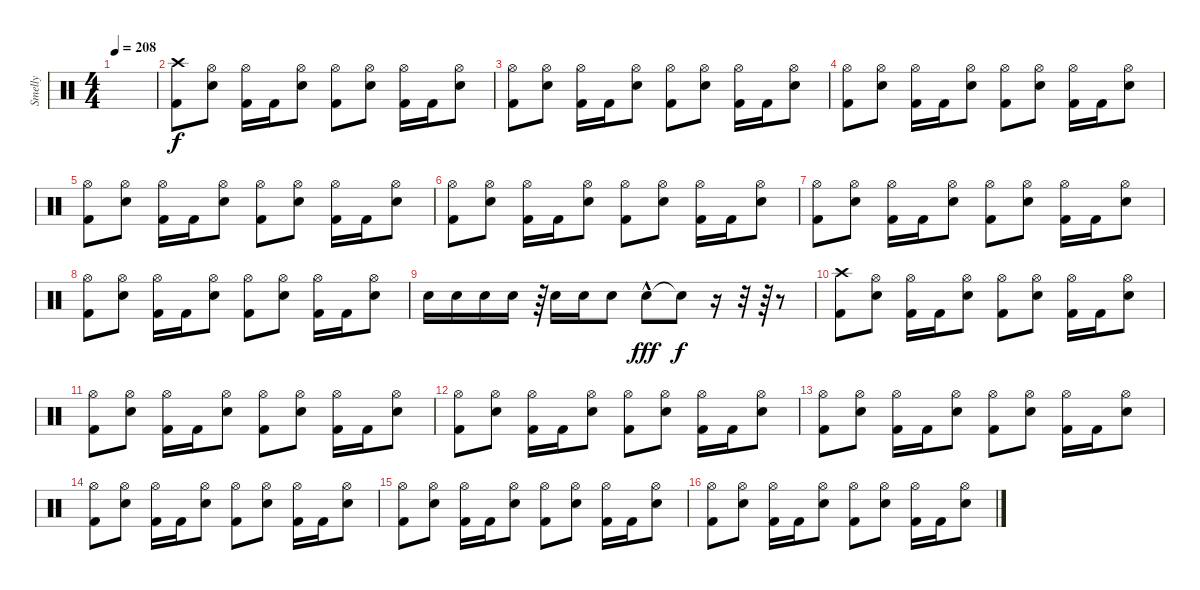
\track ("Smelly" "Smelly") {instrument percussion}
\staff {score}
\articulation defaults
\ts (4 4)
\tempo 208
\clef neutral
\ks c
|
("Crash high (hit)" "Kick (hit) 2").8 ("Hi-Hat (open)" "Electric Snare (hit)").8 ("Kick (hit) 2" "Hi-Hat (open)").16 "Kick (hit) 2".16 ("Hi-Hat (open)" "Electric Snare (hit)").8 ("Kick (hit) 2" "Hi-Hat (open)").8 ("Hi-Hat (open)" "Electric Snare (hit)").8 ("Kick (hit) 2" "Hi-Hat (open)").16 "Kick (hit) 2".16 ("Hi-Hat (open)" "Electric Snare (hit)").8 |
("Kick (hit) 2" "Hi-Hat (open)").8 ("Hi-Hat (open)" "Electric Snare (hit)").8 ("Kick (hit) 2" "Hi-Hat (open)").16 "Kick (hit) 2".16 ("Hi-Hat (open)" "Electric Snare (hit)").8 ("Kick (hit) 2" "Hi-Hat (open)").8 ("Hi-Hat (open)" "Electric Snare (hit)").8 ("Kick (hit) 2" "Hi-Hat (open)").16 "Kick (hit) 2".16 ("Hi-Hat (open)" "Electric Snare (hit)").8 |
("Kick (hit) 2" "Hi-Hat (open)").8 ("Hi-Hat (open)" "Electric Snare (hit)").8 ("Kick (hit) 2" "Hi-Hat (open)").16 "Kick (hit) 2".16 ("Hi-Hat (open)" "Electric Snare (hit)").8 ("Kick (hit) 2" "Hi-Hat (open)").8 ("Hi-Hat (open)" "Electric Snare (hit)").8 ("Kick (hit) 2" "Hi-Hat (open)").16 "Kick (hit) 2".16 ("Hi-Hat (open)" "Electric Snare (hit)").8 |
("Kick (hit) 2" "Hi-Hat (open)").8 ("Hi-Hat (open)" "Electric Snare (hit)").8 ("Kick (hit) 2" "Hi-Hat (open)").16 "Kick (hit) 2".16 ("Hi-Hat (open)" "Electric Snare (hit)").8 ("Kick (hit) 2" "Hi-Hat (open)").8 ("Hi-Hat (open)" "Electric Snare (hit)").8 ("Kick (hit) 2" "Hi-Hat (open)").16 "Kick (hit) 2".16 ("Hi-Hat (open)" "Electric Snare (hit)").8 |
("Kick (hit) 2" "Hi-Hat (open)").8 ("Hi-Hat (open)" "Electric Snare (hit)").8 ("Kick (hit) 2" "Hi-Hat (open)").16 "Kick (hit) 2".16 ("Hi-Hat (open)" "Electric Snare (hit)").8 ("Kick (hit) 2" "Hi-Hat (open)").8 ("Hi-Hat (open)" "Electric Snare (hit)").8 ("Kick (hit) 2" "Hi-Hat (open)").16 "Kick (hit) 2".16 ("Hi-Hat (open)" "Electric Snare (hit)").8 |
("Kick (hit) 2" "Hi-Hat (open)").8 ("Hi-Hat (open)" "Electric Snare (hit)").8 ("Kick (hit) 2" "Hi-Hat (open)").16 "Kick (hit) 2".16 ("Hi-Hat (open)" "Electric Snare (hit)").8 ("Kick (hit) 2" "Hi-Hat (open)").8 ("Hi-Hat (open)" "Electric Snare (hit)").8 ("Kick (hit) 2" "Hi-Hat (open)").16 "Kick (hit) 2".16 ("Hi-Hat (open)" "Electric Snare (hit)").8 |
("Kick (hit) 2" "Hi-Hat (open)").8 ("Hi-Hat (open)" "Electric Snare (hit)").8 ("Kick (hit) 2" "Hi-Hat (open)").16 "Kick (hit) 2".16 ("Hi-Hat (open)" "Electric Snare (hit)").8 ("Kick (hit) 2" "Hi-Hat (open)").8 ("Hi-Hat (open)" "Electric Snare (hit)").8 ("Kick (hit) 2" "Hi-Hat (open)").16 "Kick (hit) 2".16 ("Hi-Hat (open)" "Electric Snare (hit)").8 |
"Electric Snare (hit)".16 "Electric Snare (hit)".16 "Electric Snare (hit)".16 "Electric Snare (hit)".16 r.64 "Electric Snare (hit)".16 "Electric Snare (hit)".16 "Electric Snare (hit)".8 "Electric Snare (hit)"{hac}.8{dy fff} "Snare (hit)"{t}.8{dy f} r.16 r.32 r.64 r.8 |
("Crash high (hit)" "Kick (hit) 2").8 ("Hi-Hat (open)" "Electric Snare (hit)").8 ("Kick (hit) 2" "Hi-Hat (open)").16 "Kick (hit) 2".16 ("Hi-Hat (open)" "Electric Snare (hit)").8 ("Kick (hit) 2" "Hi-Hat (open)").8 ("Hi-Hat (open)" "Electric Snare (hit)").8 ("Kick (hit) 2" "Hi-Hat (open)").16 "Kick (hit) 2".16 ("Hi-Hat (open)" "Electric Snare (hit)").8 |
("Kick (hit) 2" "Hi-Hat (open)").8 ("Hi-Hat (open)" "Electric Snare (hit)").8 ("Kick (hit) 2" "Hi-Hat (open)").16 "Kick (hit) 2".16 ("Hi-Hat (open)" "Electric Snare (hit)").8 ("Kick (hit) 2" "Hi-Hat (open)").8 ("Hi-Hat (open)" "Electric Snare (hit)").8 ("Kick (hit) 2" "Hi-Hat (open)").16 "Kick (hit) 2".16 ("Hi-Hat (open)" "Electric Snare (hit)").8 |
("Kick (hit) 2" "Hi-Hat (open)").8 ("Hi-Hat (open)" "Electric Snare (hit)").8 ("Kick (hit) 2" "Hi-Hat (open)").16 "Kick (hit) 2".16 ("Hi-Hat (open)" "Electric Snare (hit)").8 ("Kick (hit) 2" "Hi-Hat (open)").8 ("Hi-Hat (open)" "Electric Snare (hit)").8 ("Kick (hit) 2" "Hi-Hat (open)").16 "Kick (hit) 2".16 ("Hi-Hat (open)" "Electric Snare (hit)").8 |
("Kick (hit) 2" "Hi-Hat (open)").8 ("Hi-Hat (open)" "Electric Snare (hit)").8 ("Kick (hit) 2" "Hi-Hat (open)").16 "Kick (hit) 2".16 ("Hi-Hat (open)" "Electric Snare (hit)").8 ("Kick (hit) 2" "Hi-Hat (open)").8 ("Hi-Hat (open)" "Electric Snare (hit)").8 ("Kick (hit) 2" "Hi-Hat (open)").16 "Kick (hit) 2".16 ("Hi-Hat (open)" "Electric Snare (hit)").8 |
("Kick (hit) 2" "Hi-Hat (open)").8 ("Hi-Hat (open)" "Electric Snare (hit)").8 ("Kick (hit) 2" "Hi-Hat (open)").16 "Kick (hit) 2".16 ("Hi-Hat (open)" "Electric Snare (hit)").8 ("Kick (hit) 2" "Hi-Hat (open)").8 ("Hi-Hat (open)" "Electric Snare (hit)").8 ("Kick (hit) 2" "Hi-Hat (open)").16 "Kick (hit) 2".16 ("Hi-Hat (open)" "Electric Snare (hit)").8 |
("Kick (hit) 2" "Hi-Hat (open)").8 ("Hi-Hat (open)" "Electric Snare (hit)").8 ("Kick (hit) 2" "Hi-Hat (open)").16 "Kick (hit) 2".16 ("Hi-Hat (open)" "Electric Snare (hit)").8 ("Kick (hit) 2" "Hi-Hat (open)").8 ("Hi-Hat (open)" "Electric Snare (hit)").8 ("Kick (hit) 2" "Hi-Hat (open)").16 "Kick (hit) 2".16 ("Hi-Hat (open)" "Electric Snare (hit)").8 |
("Kick (hit) 2" "Hi-Hat (open)").8 ("Hi-Hat (open)" "Electric Snare (hit)").8 ("Kick (hit) 2" "Hi-Hat (open)").16 "Kick (hit) 2".16 ("Hi-Hat (open)" "Electric Snare (hit)").8 ("Kick (hit) 2" "Hi-Hat (open)").8 ("Hi-Hat (open)" "Electric Snare (hit)").8 ("Kick (hit) 2" "Hi-Hat (open)").16 "Kick (hit) 2".16 ("Hi-Hat (open)" "Electric Snare (hit)").8
